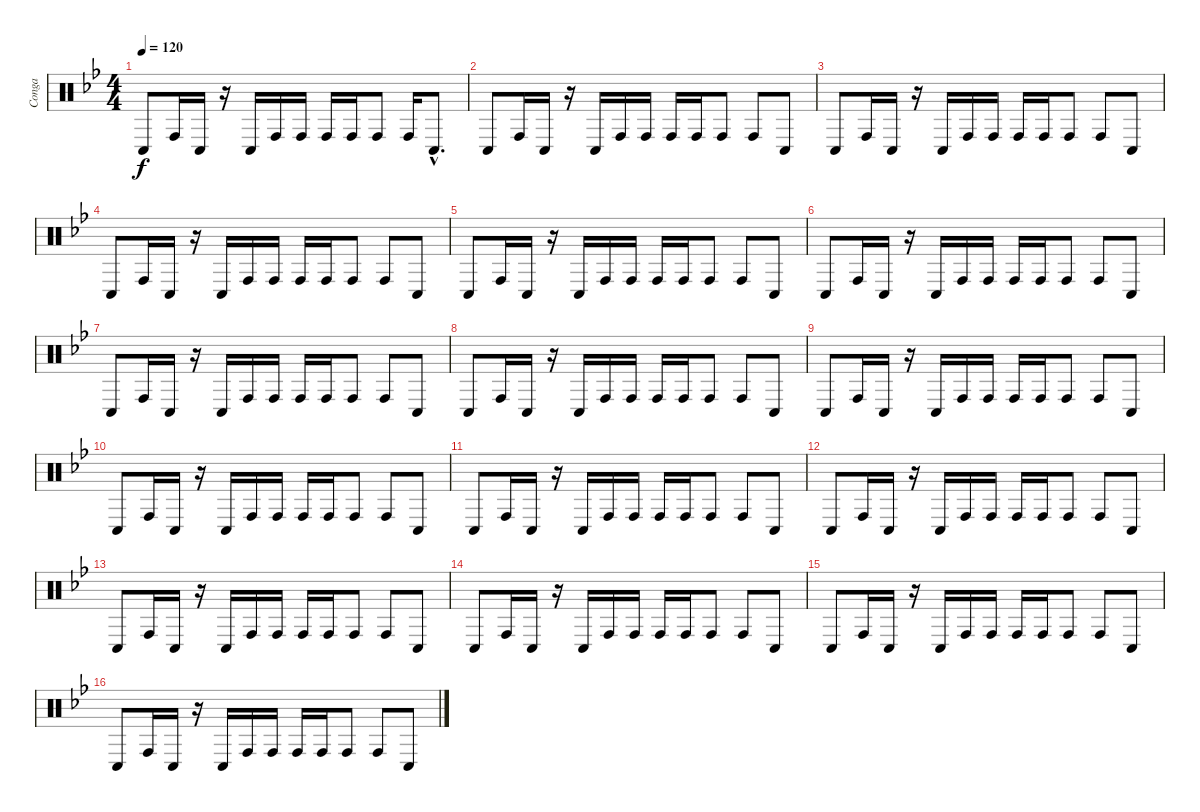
\track ("Conga" "Conga") {instrument percussion}
\staff {score}
\articulation defaults
\ts (4 4)
\tempo 120
\clef neutral
\ks bb "Conga low (hit)".8{dy f} "Conga high (hit)".16 "Conga low (hit)".16
r.16 "Conga low (hit)".16 "Conga high (hit)".16 "Conga high (hit)".16 "Conga high (hit)".16 "Conga high (hit)".16 "Conga high (hit)".8 "Conga high (hit)".16 "Conga low (hit)"{hac}.8{d} |
"Conga low (hit)".8 "Conga high (hit)".16 "Conga low (hit)".16 r.16 "Conga low (hit)".16 "Conga high (hit)".16 "Conga high (hit)".16 "Conga high (hit)".16 "Conga high (hit)".16 "Conga high (hit)".8 "Conga high (hit)".8 "Conga low (hit)".8 |
"Conga low (hit)".8 "Conga high (hit)".16 "Conga low (hit)".16 r.16 "Conga low (hit)".16 "Conga high (hit)".16 "Conga high (hit)".16 "Conga high (hit)".16 "Conga high (hit)".16 "Conga high (hit)".8 "Conga high (hit)".8 "Conga low (hit)".8 |
"Conga low (hit)".8 "Conga high (hit)".16 "Conga low (hit)".16 r.16 "Conga low (hit)".16 "Conga high (hit)".16 "Conga high (hit)".16 "Conga high (hit)".16 "Conga high (hit)".16 "Conga high (hit)".8 "Conga high (hit)".8 "Conga low (hit)".8 |
"Conga low (hit)".8 "Conga high (hit)".16 "Conga low (hit)".16 r.16 "Conga low (hit)".16 "Conga high (hit)".16 "Conga high (hit)".16 "Conga high (hit)".16 "Conga high (hit)".16 "Conga high (hit)".8 "Conga high (hit)".8 "Conga low (hit)".8 |
"Conga low (hit)".8 "Conga high (hit)".16 "Conga low (hit)".16 r.16 "Conga low (hit)".16 "Conga high (hit)".16 "Conga high (hit)".16 "Conga high (hit)".16 "Conga high (hit)".16 "Conga high (hit)".8 "Conga high (hit)".8 "Conga low (hit)".8 |
"Conga low (hit)".8 "Conga high (hit)".16 "Conga low (hit)".16 r.16 "Conga low (hit)".16 "Conga high (hit)".16 "Conga high (hit)".16 "Conga high (hit)".16 "Conga high (hit)".16 "Conga high (hit)".8 "Conga high (hit)".8 "Conga low (hit)".8 |
"Conga low (hit)".8 "Conga high (hit)".16 "Conga low (hit)".16 r.16 "Conga low (hit)".16 "Conga high (hit)".16 "Conga high (hit)".16 "Conga high (hit)".16 "Conga high (hit)".16 "Conga high (hit)".8 "Conga high (hit)".8 "Conga low (hit)".8 |
"Conga low (hit)".8 "Conga high (hit)".16 "Conga low (hit)".16 r.16 "Conga low (hit)".16 "Conga high (hit)".16 "Conga high (hit)".16 "Conga high (hit)".16 "Conga high (hit)".16 "Conga high (hit)".8 "Conga high (hit)".8 "Conga low (hit)".8 |
"Conga low (hit)".8 "Conga high (hit)".16 "Conga low (hit)".16 r.16 "Conga low (hit)".16 "Conga high (hit)".16 "Conga high (hit)".16 "Conga high (hit)".16 "Conga high (hit)".16 "Conga high (hit)".8 "Conga high (hit)".8 "Conga low (hit)".8 |
"Conga low (hit)".8 "Conga high (hit)".16 "Conga low (hit)".16 r.16 "Conga low (hit)".16 "Conga high (hit)".16 "Conga high (hit)".16 "Conga high (hit)".16 "Conga high (hit)".16 "Conga high (hit)".8 "Conga high (hit)".8 "Conga low (hit)".8 |
"Conga low (hit)".8 "Conga high (hit)".16 "Conga low (hit)".16 r.16 "Conga low (hit)".16 "Conga high (hit)".16 "Conga high (hit)".16 "Conga high (hit)".16 "Conga high (hit)".16 "Conga high (hit)".8 "Conga high (hit)".8 "Conga low (hit)".8 |
"Conga low (hit)".8 "Conga high (hit)".16 "Conga low (hit)".16 r.16 "Conga low (hit)".16 "Conga high (hit)".16 "Conga high (hit)".16 "Conga high (hit)".16 "Conga high (hit)".16 "Conga high (hit)".8 "Conga high (hit)".8 "Conga low (hit)".8 |
"Conga low (hit)".8 "Conga high (hit)".16 "Conga low (hit)".16 r.16 "Conga low (hit)".16 "Conga high (hit)".16 "Conga high (hit)".16 "Conga high (hit)".16 "Conga high (hit)".16 "Conga high (hit)".8 "Conga high (hit)".8 "Conga low (hit)".8 |
"Conga low (hit)".8 "Conga high (hit)".16 "Conga low (hit)".16 r.16 "Conga low (hit)".16 "Conga high (hit)".16 "Conga high (hit)".16 "Conga high (hit)".16 "Conga high (hit)".16 "Conga high (hit)".8 "Conga high (hit)".8 "Conga low (hit)".8 |
"Conga low (hit)".8 "Conga high (hit)".16 "Conga low (hit)".16 r.16 "Conga low (hit)".16 "Conga high (hit)".16 "Conga high (hit)".16 "Conga high (hit)".16 "Conga high (hit)".16 "Conga high (hit)".8 "Conga high (hit)".8 "Conga low (hit)".8
